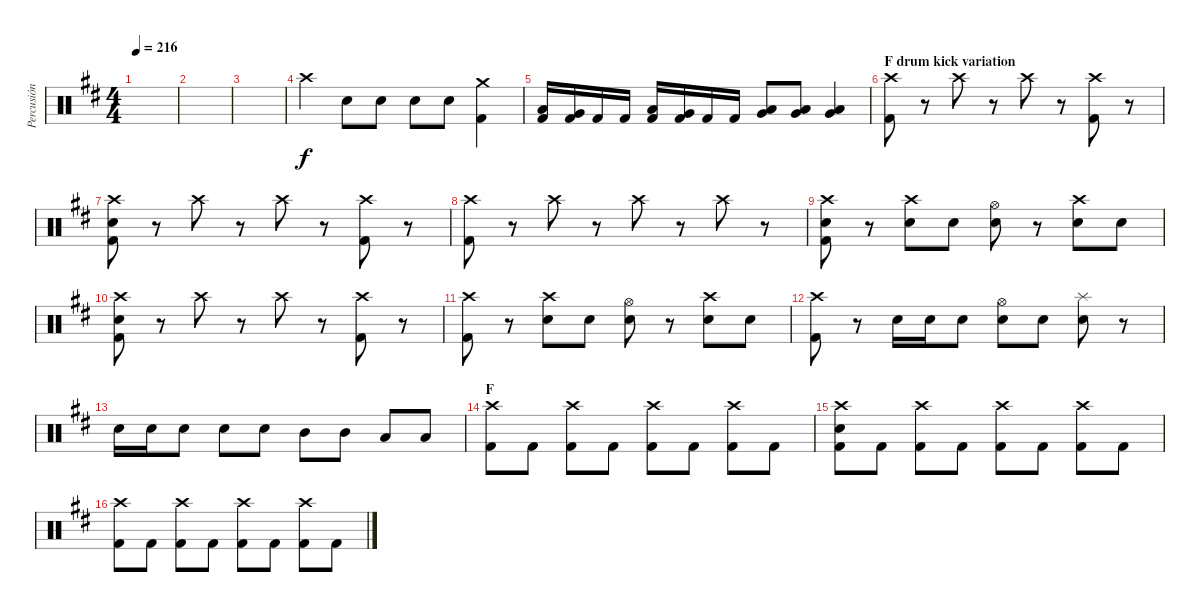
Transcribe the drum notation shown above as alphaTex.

\track ("Percusión" "Percusión") {instrument percussion}
\staff {score}
\articulation defaults
\ts (4 4)
\tempo 216
\clef neutral
\ks d
|
|
|
"Crash high (hit)".4 "Electric Snare (hit)".8 "Electric Snare (hit)".8 "Electric Snare (hit)".8 "Electric Snare (hit)".8 ("Crash medium (hit)" "Kick (hit) 2").4 |
("Low Tom (hit)" "Kick (hit) 2").16 ("Very Low Tom (hit)" "Kick (hit) 2").16 "Kick (hit) 2".16 "Kick (hit) 2".16 ("Low Tom (hit)" "Kick (hit) 2").16 ("Very Low Tom (hit)" "Kick (hit) 2").16 "Kick (hit) 2".16 "Kick (hit) 2".16 ("Low Tom (hit)" "Very Low Tom (hit)").8 ("Low Tom (hit)" "Very Low Tom (hit)").8 ("Low Tom (hit)" "Very Low Tom (hit)").4 |
\section ("" "F drum kick variation")
("Crash high (hit)" "Kick (hit) 2").8 r.8 "Crash high (hit)".8 r.8 "Crash high (hit)".8 r.8 ("Crash high (hit)" "Kick (hit) 2").8 r.8 |
("Crash high (hit)" "Electric Snare (hit)" "Kick (hit) 2").8 r.8 "Crash high (hit)".8 r.8 "Crash high (hit)".8 r.8 ("Crash high (hit)" "Kick (hit) 2").8 r.8 |
("Crash high (hit)" "Kick (hit) 2").8 r.8 "Crash high (hit)".8 r.8 "Crash high (hit)".8 r.8 "Crash high (hit)".8 r.8 |
("Crash high (hit)" "Electric Snare (hit)" "Kick (hit) 2").8 r.8 ("Crash high (hit)" "Electric Snare (hit)").8 "Electric Snare (hit)".8 ("Hi-Hat (open)" "Electric Snare (hit)").8 r.8 ("Crash high (hit)" "Electric Snare (hit)").8 "Electric Snare (hit)".8 |
("Crash high (hit)" "Electric Snare (hit)" "Kick (hit) 2").8 r.8 "Crash high (hit)".8 r.8 "Crash high (hit)".8 r.8 ("Crash high (hit)" "Kick (hit) 2").8 r.8 |
("Crash high (hit)" "Kick (hit) 2").8 r.8 ("Crash high (hit)" "Electric Snare (hit)").8 "Electric Snare (hit)".8 ("Hi-Hat (open)" "Electric Snare (hit)").8 r.8 ("Crash high (hit)" "Electric Snare (hit)").8 "Electric Snare (hit)".8 |
("Crash high (hit)" "Kick (hit) 2").8 r.8 "Electric Snare (hit)".16 "Electric Snare (hit)".16 "Electric Snare (hit)".8 ("Hi-Hat (open)" "Electric Snare (hit)").8 "Electric Snare (hit)".8 ("Splash (hit)" "Electric Snare (hit)").8 r.8 |
"Electric Snare (hit)".16 "Electric Snare (hit)".16 "Electric Snare (hit)".8 "Electric Snare (hit)".8 "Electric Snare (hit)".8 "Mid Tom (hit)".8 "Mid Tom (hit)".8 "Low Tom (hit)".8 "Low Tom (hit)".8 |
\section ("" "F")
("Crash high (hit)" "Kick (hit) 2").8 "Kick (hit) 2".8 ("Crash high (hit)" "Kick (hit) 2").8 "Kick (hit) 2".8 ("Crash high (hit)" "Kick (hit) 2").8 "Kick (hit) 2".8 ("Crash high (hit)" "Kick (hit) 2").8 "Kick (hit) 2".8 |
("Crash high (hit)" "Electric Snare (hit)" "Kick (hit) 2").8 "Kick (hit) 2".8 ("Crash high (hit)" "Kick (hit) 2").8 "Kick (hit) 2".8 ("Crash high (hit)" "Kick (hit) 2").8 "Kick (hit) 2".8 ("Crash high (hit)" "Kick (hit) 2").8 "Kick (hit) 2".8 |
("Crash high (hit)" "Kick (hit) 2").8 "Kick (hit) 2".8 ("Crash high (hit)" "Kick (hit) 2").8 "Kick (hit) 2".8 ("Crash high (hit)" "Kick (hit) 2").8 "Kick (hit) 2".8 ("Crash high (hit)" "Kick (hit) 2").8 "Kick (hit) 2".8
